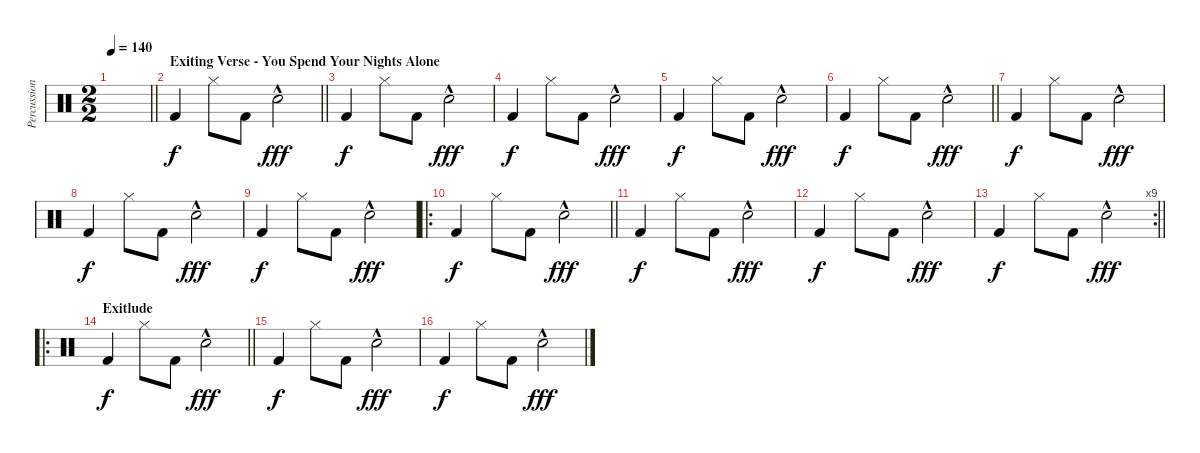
\track ("Percussion" "Percussion") {instrument percussion}
\staff {score}
\articulation defaults
\ts (2 2)
\section ("" "")
\tempo 140
\clef neutral
\barLineRight lightlight
\ks c
|
\section ("" "Exiting Verse - You Spend Your Nights Alone")
\barLineRight lightlight "Kick (hit) 2".4{dy f} "Hi-Hat (closed)".8 "Kick (hit) 2".8 "Hand Clap (hit)"{hac}.2{dy fff}
|
"Kick (hit) 2".4{dy f} "Hi-Hat (closed)".8 "Kick (hit) 2".8 "Hand Clap (hit)"{hac}.2{dy fff} |
"Kick (hit) 2".4{dy f} "Hi-Hat (closed)".8 "Kick (hit) 2".8 "Hand Clap (hit)"{hac}.2{dy fff} |
"Kick (hit) 2".4{dy f} "Hi-Hat (closed)".8 "Kick (hit) 2".8 "Hand Clap (hit)"{hac}.2{dy fff} |
\barLineRight lightlight "Kick (hit) 2".4{dy f} "Hi-Hat (closed)".8 "Kick (hit) 2".8 "Hand Clap (hit)"{hac}.2{dy fff}
|
"Kick (hit) 2".4{dy f} "Hi-Hat (closed)".8 "Kick (hit) 2".8 "Hand Clap (hit)"{hac}.2{dy fff} |
"Kick (hit) 2".4{dy f} "Hi-Hat (closed)".8 "Kick (hit) 2".8 "Hand Clap (hit)"{hac}.2{dy fff} |
"Kick (hit) 2".4{dy f} "Hi-Hat (closed)".8 "Kick (hit) 2".8 "Hand Clap (hit)"{hac}.2{dy fff} |
\ro
\barLineRight lightlight "Kick (hit) 2".4{dy f} "Hi-Hat (closed)".8 "Kick (hit) 2".8 "Hand Clap (hit)"{hac}.2{dy fff}
|
"Kick (hit) 2".4{dy f} "Hi-Hat (closed)".8 "Kick (hit) 2".8 "Hand Clap (hit)"{hac}.2{dy fff} |
"Kick (hit) 2".4{dy f} "Hi-Hat (closed)".8 "Kick (hit) 2".8 "Hand Clap (hit)"{hac}.2{dy fff} |
\rc 9
\barLineRight lightlight "Kick (hit) 2".4{dy f} "Hi-Hat (closed)".8 "Kick (hit) 2".8 "Hand Clap (hit)"{hac}.2{dy fff}
|
\ro
\section ("" "Exitlude")
\barLineRight lightlight "Kick (hit) 2".4{dy f} "Hi-Hat (closed)".8 "Kick (hit) 2".8 "Hand Clap (hit)"{hac}.2{dy fff}
|
"Kick (hit) 2".4{dy f} "Hi-Hat (closed)".8 "Kick (hit) 2".8 "Hand Clap (hit)"{hac}.2{dy fff} |
"Kick (hit) 2".4{dy f} "Hi-Hat (closed)".8 "Kick (hit) 2".8 "Hand Clap (hit)"{hac}.2{dy fff}
